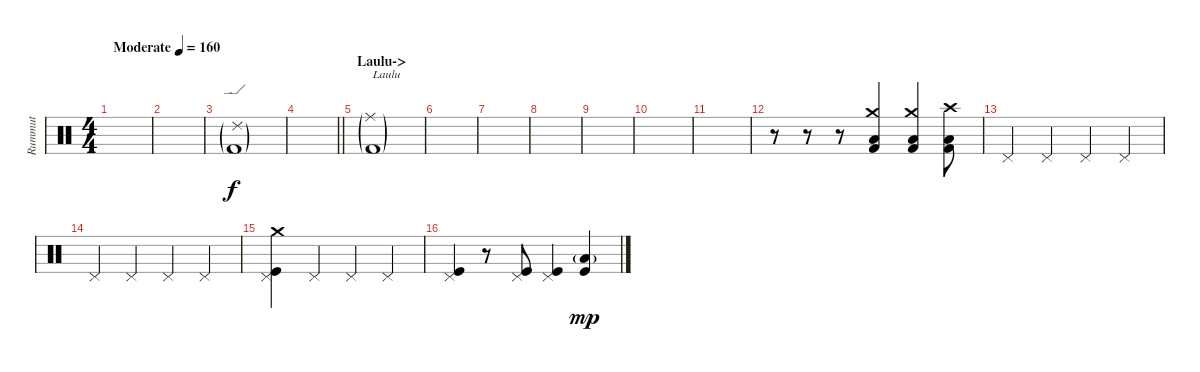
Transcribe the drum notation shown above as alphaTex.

\track ("Rummut" "Rummut") {instrument percussion}
\staff {score}
\articulation defaults
\ts (4 4)
\tempo (160 "Moderate")
\clef neutral
\ks c
|
|
("Kick (hit) 2"{g} "Ride (edge) 2"{g}).1 |
\barLineRight lightlight
|
\section ("" "Laulu->")
("Ride (middle)"{g} "Kick (hit) 2"{g}).1{txt "Laulu"} |
|
|
|
|
|
|
r.8 r.8 r.8 ("Crash medium (hit)" "Low Tom (hit)" "Kick (hit) 2").4{dy f} ("Crash medium (hit)" "Low Tom (hit)" "Kick (hit) 2").4 ("Crash high (hit)" "Low Tom (hit)" "Kick (hit) 2").8 |
"Pedal Hi-Hat (hit)".4 "Pedal Hi-Hat (hit)".4 "Pedal Hi-Hat (hit)".4 "Pedal Hi-Hat (hit)".4 |
"Pedal Hi-Hat (hit)".4 "Pedal Hi-Hat (hit)".4 "Pedal Hi-Hat (hit)".4 "Pedal Hi-Hat (hit)".4 |
("Crash medium (hit)" "Pedal Hi-Hat (hit)" "Kick (hit)").4 "Pedal Hi-Hat (hit)".4 "Pedal Hi-Hat (hit)".4 "Pedal Hi-Hat (hit)".4 |
("Pedal Hi-Hat (hit)" "Kick (hit)").4 r.8 ("Kick (hit)" "Pedal Hi-Hat (hit)").8 ("Kick (hit)" "Pedal Hi-Hat (hit)").4 ("Kick (hit)" "Low Tom (hit)"{g}).4{dy mp}
